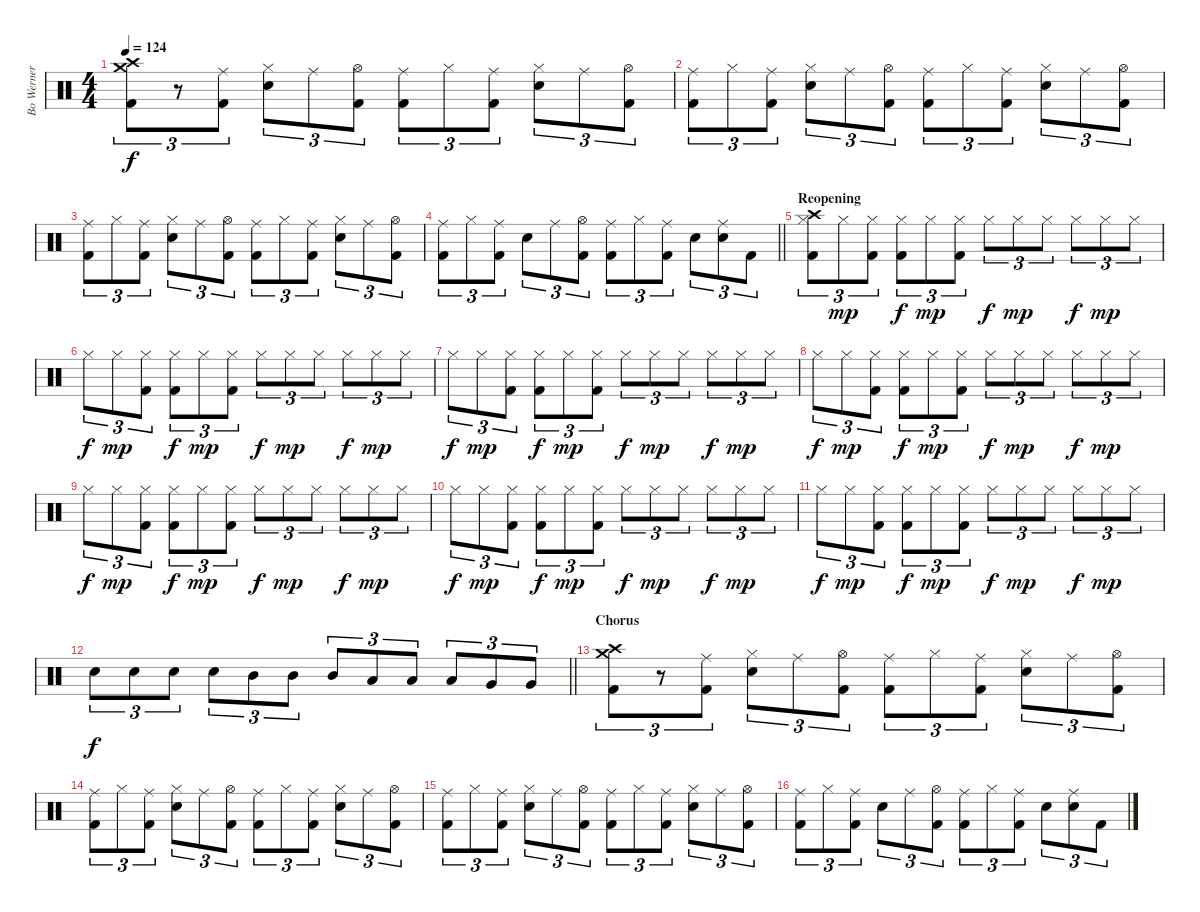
\track ("Bo Werner " "Bo Werner ") {instrument percussion}
\staff {score}
\articulation defaults
\ts (4 4)
\tempo 124
\clef neutral
\ks c
("Crash medium (hit)" "Crash high (hit)" "Kick (hit) 2").8{tu (3 2) dy f} r.8{tu (3 2)} ("Ride (middle)" "Kick (hit) 2").8{tu (3 2)} ("Hi-Hat (closed)" "Electric Snare (hit)").8{tu (3 2)} "Ride (middle)".8{tu (3 2)} ("Hi-Hat (open)" "Kick (hit) 2").8{tu (3 2)} ("Ride (middle)" "Kick (hit) 2").8{tu (3 2)} "Hi-Hat (closed)".8{tu (3 2)} ("Ride (middle)" "Kick (hit) 2").8{tu (3 2)} ("Hi-Hat (closed)" "Electric Snare (hit)").8{tu (3 2)} "Ride (middle)".8{tu (3 2)} ("Hi-Hat (open)" "Kick (hit) 2").8{tu (3 2)} |
("Ride (middle)" "Kick (hit) 2").8{tu (3 2)} "Hi-Hat (closed)".8{tu (3 2)} ("Ride (middle)" "Kick (hit) 2").8{tu (3 2)} ("Hi-Hat (closed)" "Electric Snare (hit)").8{tu (3 2)} "Ride (middle)".8{tu (3 2)} ("Hi-Hat (open)" "Kick (hit) 2").8{tu (3 2)} ("Ride (middle)" "Kick (hit) 2").8{tu (3 2)} "Hi-Hat (closed)".8{tu (3 2)} ("Ride (middle)" "Kick (hit) 2").8{tu (3 2)} ("Hi-Hat (closed)" "Electric Snare (hit)").8{tu (3 2)} "Ride (middle)".8{tu (3 2)} ("Hi-Hat (open)" "Kick (hit) 2").8{tu (3 2)} |
("Ride (middle)" "Kick (hit) 2").8{tu (3 2)} "Hi-Hat (closed)".8{tu (3 2)} ("Ride (middle)" "Kick (hit) 2").8{tu (3 2)} ("Hi-Hat (closed)" "Electric Snare (hit)").8{tu (3 2)} "Ride (middle)".8{tu (3 2)} ("Hi-Hat (open)" "Kick (hit) 2").8{tu (3 2)} ("Ride (middle)" "Kick (hit) 2").8{tu (3 2)} "Hi-Hat (closed)".8{tu (3 2)} ("Ride (middle)" "Kick (hit) 2").8{tu (3 2)} ("Hi-Hat (closed)" "Electric Snare (hit)").8{tu (3 2)} "Ride (middle)".8{tu (3 2)} ("Hi-Hat (open)" "Kick (hit) 2").8{tu (3 2)} |
\barLineRight lightlight
("Ride (middle)" "Kick (hit) 2").8{tu (3 2)} "Hi-Hat (closed)".8{tu (3 2)} ("Ride (middle)" "Kick (hit) 2").8{tu (3 2)} "Electric Snare (hit)".8{tu (3 2)} "Ride (middle)".8{tu (3 2)} ("Hi-Hat (open)" "Kick (hit) 2").8{tu (3 2)} ("Ride (middle)" "Kick (hit) 2").8{tu (3 2)} "Hi-Hat (closed)".8{tu (3 2)} ("Ride (middle)" "Kick (hit) 2").8{tu (3 2)} "Electric Snare (hit)".8{tu (3 2)} ("Ride (middle)" "Electric Snare (hit)").8{tu (3 2)} "Kick (hit) 2".8{tu (3 2)} |
\section ("" "Reopening")
("Crash high (hit)" "Hi-Hat (closed)" "Kick (hit) 2").8{tu (3 2)} "Hi-Hat (closed)".8{tu (3 2) dy mp} ("Hi-Hat (closed)" "Kick (hit) 2").8{tu (3 2)} ("Hi-Hat (closed)" "Kick (hit) 2").8{tu (3 2) dy f} "Hi-Hat (closed)".8{tu (3 2) dy mp} ("Hi-Hat (closed)" "Kick (hit) 2").8{tu (3 2)} "Hi-Hat (closed)".8{tu (3 2) dy f} "Hi-Hat (closed)".8{tu (3 2) dy mp} "Hi-Hat (closed)".8{tu (3 2)} "Hi-Hat (closed)".8{tu (3 2) dy f} "Hi-Hat (closed)".8{tu (3 2) dy mp} "Hi-Hat (closed)".8{tu (3 2)} |
"Hi-Hat (closed)".8{tu (3 2) dy f} "Hi-Hat (closed)".8{tu (3 2) dy mp} ("Hi-Hat (closed)" "Kick (hit) 2").8{tu (3 2)} ("Hi-Hat (closed)" "Kick (hit) 2").8{tu (3 2) dy f} "Hi-Hat (closed)".8{tu (3 2) dy mp} ("Hi-Hat (closed)" "Kick (hit) 2").8{tu (3 2)} "Hi-Hat (closed)".8{tu (3 2) dy f} "Hi-Hat (closed)".8{tu (3 2) dy mp} "Hi-Hat (closed)".8{tu (3 2)} "Hi-Hat (closed)".8{tu (3 2) dy f} "Hi-Hat (closed)".8{tu (3 2) dy mp} "Hi-Hat (closed)".8{tu (3 2)} |
"Hi-Hat (closed)".8{tu (3 2) dy f} "Hi-Hat (closed)".8{tu (3 2) dy mp} ("Hi-Hat (closed)" "Kick (hit) 2").8{tu (3 2)} ("Hi-Hat (closed)" "Kick (hit) 2").8{tu (3 2) dy f} "Hi-Hat (closed)".8{tu (3 2) dy mp} ("Hi-Hat (closed)" "Kick (hit) 2").8{tu (3 2)} "Hi-Hat (closed)".8{tu (3 2) dy f} "Hi-Hat (closed)".8{tu (3 2) dy mp} "Hi-Hat (closed)".8{tu (3 2)} "Hi-Hat (closed)".8{tu (3 2) dy f} "Hi-Hat (closed)".8{tu (3 2) dy mp} "Hi-Hat (closed)".8{tu (3 2)} |
"Hi-Hat (closed)".8{tu (3 2) dy f} "Hi-Hat (closed)".8{tu (3 2) dy mp} ("Hi-Hat (closed)" "Kick (hit) 2").8{tu (3 2)} ("Hi-Hat (closed)" "Kick (hit) 2").8{tu (3 2) dy f} "Hi-Hat (closed)".8{tu (3 2) dy mp} ("Hi-Hat (closed)" "Kick (hit) 2").8{tu (3 2)} "Hi-Hat (closed)".8{tu (3 2) dy f} "Hi-Hat (closed)".8{tu (3 2) dy mp} "Hi-Hat (closed)".8{tu (3 2)} "Hi-Hat (closed)".8{tu (3 2) dy f} "Hi-Hat (closed)".8{tu (3 2) dy mp} "Hi-Hat (closed)".8{tu (3 2)} |
"Hi-Hat (closed)".8{tu (3 2) dy f} "Hi-Hat (closed)".8{tu (3 2) dy mp} ("Hi-Hat (closed)" "Kick (hit) 2").8{tu (3 2)} ("Hi-Hat (closed)" "Kick (hit) 2").8{tu (3 2) dy f} "Hi-Hat (closed)".8{tu (3 2) dy mp} ("Hi-Hat (closed)" "Kick (hit) 2").8{tu (3 2)} "Hi-Hat (closed)".8{tu (3 2) dy f} "Hi-Hat (closed)".8{tu (3 2) dy mp} "Hi-Hat (closed)".8{tu (3 2)} "Hi-Hat (closed)".8{tu (3 2) dy f} "Hi-Hat (closed)".8{tu (3 2) dy mp} "Hi-Hat (closed)".8{tu (3 2)} |
"Hi-Hat (closed)".8{tu (3 2) dy f} "Hi-Hat (closed)".8{tu (3 2) dy mp} ("Hi-Hat (closed)" "Kick (hit) 2").8{tu (3 2)} ("Hi-Hat (closed)" "Kick (hit) 2").8{tu (3 2) dy f} "Hi-Hat (closed)".8{tu (3 2) dy mp} ("Hi-Hat (closed)" "Kick (hit) 2").8{tu (3 2)} "Hi-Hat (closed)".8{tu (3 2) dy f} "Hi-Hat (closed)".8{tu (3 2) dy mp} "Hi-Hat (closed)".8{tu (3 2)} "Hi-Hat (closed)".8{tu (3 2) dy f} "Hi-Hat (closed)".8{tu (3 2) dy mp} "Hi-Hat (closed)".8{tu (3 2)} |
"Hi-Hat (closed)".8{tu (3 2) dy f} "Hi-Hat (closed)".8{tu (3 2) dy mp} ("Hi-Hat (closed)" "Kick (hit) 2").8{tu (3 2)} ("Hi-Hat (closed)" "Kick (hit) 2").8{tu (3 2) dy f} "Hi-Hat (closed)".8{tu (3 2) dy mp} ("Hi-Hat (closed)" "Kick (hit) 2").8{tu (3 2)} "Hi-Hat (closed)".8{tu (3 2) dy f} "Hi-Hat (closed)".8{tu (3 2) dy mp} "Hi-Hat (closed)".8{tu (3 2)} "Hi-Hat (closed)".8{tu (3 2) dy f} "Hi-Hat (closed)".8{tu (3 2) dy mp} "Hi-Hat (closed)".8{tu (3 2)} |
\barLineRight lightlight "Snare (hit) 2".8{tu (3 2) dy f} "Snare (hit) 2".8{tu (3 2)} "Snare (hit) 2".8{tu (3 2)} "Snare (hit) 2".8{tu (3 2)} "Mid Tom (hit)".8{tu (3 2)} "Mid Tom (hit)".8{tu (3 2)} "Mid Tom (hit)".8{tu (3 2)} "Low Tom (hit)".8{tu (3 2)} "Low Tom (hit)".8{tu (3 2)} "Low Tom (hit)".8{tu (3 2)} "Very Low Tom (hit)".8{tu (3 2)} "Very Low Tom (hit)".8{tu (3 2)}
|
\section ("" "Chorus")
("Crash medium (hit)" "Crash high (hit)" "Kick (hit) 2").8{tu (3 2)} r.8{tu (3 2)} ("Ride (middle)" "Kick (hit) 2").8{tu (3 2)} ("Hi-Hat (closed)" "Electric Snare (hit)").8{tu (3 2)} "Ride (middle)".8{tu (3 2)} ("Hi-Hat (open)" "Kick (hit) 2").8{tu (3 2)} ("Ride (middle)" "Kick (hit) 2").8{tu (3 2)} "Hi-Hat (closed)".8{tu (3 2)} ("Ride (middle)" "Kick (hit) 2").8{tu (3 2)} ("Hi-Hat (closed)" "Electric Snare (hit)").8{tu (3 2)} "Ride (middle)".8{tu (3 2)} ("Hi-Hat (open)" "Kick (hit) 2").8{tu (3 2)} |
("Ride (middle)" "Kick (hit) 2").8{tu (3 2)} "Hi-Hat (closed)".8{tu (3 2)} ("Ride (middle)" "Kick (hit) 2").8{tu (3 2)} ("Hi-Hat (closed)" "Electric Snare (hit)").8{tu (3 2)} "Ride (middle)".8{tu (3 2)} ("Hi-Hat (open)" "Kick (hit) 2").8{tu (3 2)} ("Ride (middle)" "Kick (hit) 2").8{tu (3 2)} "Hi-Hat (closed)".8{tu (3 2)} ("Ride (middle)" "Kick (hit) 2").8{tu (3 2)} ("Hi-Hat (closed)" "Electric Snare (hit)").8{tu (3 2)} "Ride (middle)".8{tu (3 2)} ("Hi-Hat (open)" "Kick (hit) 2").8{tu (3 2)} |
("Ride (middle)" "Kick (hit) 2").8{tu (3 2)} "Hi-Hat (closed)".8{tu (3 2)} ("Ride (middle)" "Kick (hit) 2").8{tu (3 2)} ("Hi-Hat (closed)" "Electric Snare (hit)").8{tu (3 2)} "Ride (middle)".8{tu (3 2)} ("Hi-Hat (open)" "Kick (hit) 2").8{tu (3 2)} ("Ride (middle)" "Kick (hit) 2").8{tu (3 2)} "Hi-Hat (closed)".8{tu (3 2)} ("Ride (middle)" "Kick (hit) 2").8{tu (3 2)} ("Hi-Hat (closed)" "Electric Snare (hit)").8{tu (3 2)} "Ride (middle)".8{tu (3 2)} ("Hi-Hat (open)" "Kick (hit) 2").8{tu (3 2)} |
("Ride (middle)" "Kick (hit) 2").8{tu (3 2)} "Hi-Hat (closed)".8{tu (3 2)} ("Ride (middle)" "Kick (hit) 2").8{tu (3 2)} "Electric Snare (hit)".8{tu (3 2)} "Ride (middle)".8{tu (3 2)} ("Hi-Hat (open)" "Kick (hit) 2").8{tu (3 2)} ("Ride (middle)" "Kick (hit) 2").8{tu (3 2)} "Hi-Hat (closed)".8{tu (3 2)} ("Ride (middle)" "Kick (hit) 2").8{tu (3 2)} "Electric Snare (hit)".8{tu (3 2)} ("Ride (middle)" "Electric Snare (hit)").8{tu (3 2)} "Kick (hit) 2".8{tu (3 2)}
